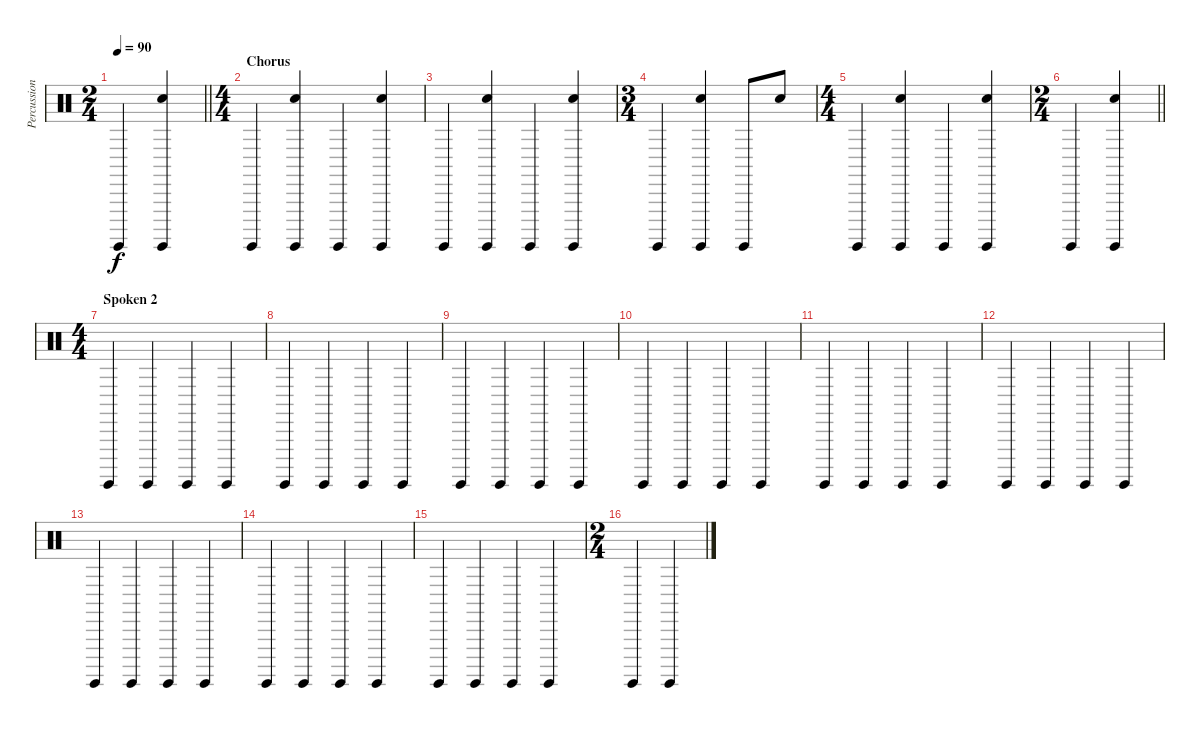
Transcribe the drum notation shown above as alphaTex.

\track ("Percussion" "Percussion") {instrument percussion}
\staff {score}
\articulation defaults
\ts (2 4)
\tempo 90
\clef neutral
\barLineRight lightlight
\ks c "Surdo (hit)".4{dy f}
("Surdo (hit)" "Hand Clap (hit)").4 |
\ts (4 4)
\section ("" "Chorus")
"Surdo (hit)".4 ("Surdo (hit)" "Hand Clap (hit)").4 "Surdo (hit)".4 ("Surdo (hit)" "Hand Clap (hit)").4 |
"Surdo (hit)".4 ("Surdo (hit)" "Hand Clap (hit)").4 "Surdo (hit)".4 ("Surdo (hit)" "Hand Clap (hit)").4 |
\ts (3 4)
"Surdo (hit)".4 ("Surdo (hit)" "Hand Clap (hit)").4 "Surdo (hit)".8 "Hand Clap (hit)".8 |
\ts (4 4)
"Surdo (hit)".4 ("Surdo (hit)" "Hand Clap (hit)").4 "Surdo (hit)".4 ("Surdo (hit)" "Hand Clap (hit)").4 |
\ts (2 4)
\barLineRight lightlight "Surdo (hit)".4
("Surdo (hit)" "Hand Clap (hit)").4 |
\ts (4 4)
\section ("" "Spoken 2")
"Surdo (hit)".4 "Surdo (hit)".4 "Surdo (hit)".4 "Surdo (hit)".4 |
"Surdo (hit)".4 "Surdo (hit)".4 "Surdo (hit)".4 "Surdo (hit)".4 |
"Surdo (hit)".4 "Surdo (hit)".4 "Surdo (hit)".4 "Surdo (hit)".4 |
"Surdo (hit)".4 "Surdo (hit)".4 "Surdo (hit)".4 "Surdo (hit)".4 |
"Surdo (hit)".4 "Surdo (hit)".4 "Surdo (hit)".4 "Surdo (hit)".4 |
"Surdo (hit)".4 "Surdo (hit)".4 "Surdo (hit)".4 "Surdo (hit)".4 |
"Surdo (hit)".4 "Surdo (hit)".4 "Surdo (hit)".4 "Surdo (hit)".4 |
"Surdo (hit)".4 "Surdo (hit)".4 "Surdo (hit)".4 "Surdo (hit)".4 |
"Surdo (hit)".4 "Surdo (hit)".4 "Surdo (hit)".4 "Surdo (hit)".4 |
\ts (2 4)
"Surdo (hit)".4 "Surdo (hit)".4
